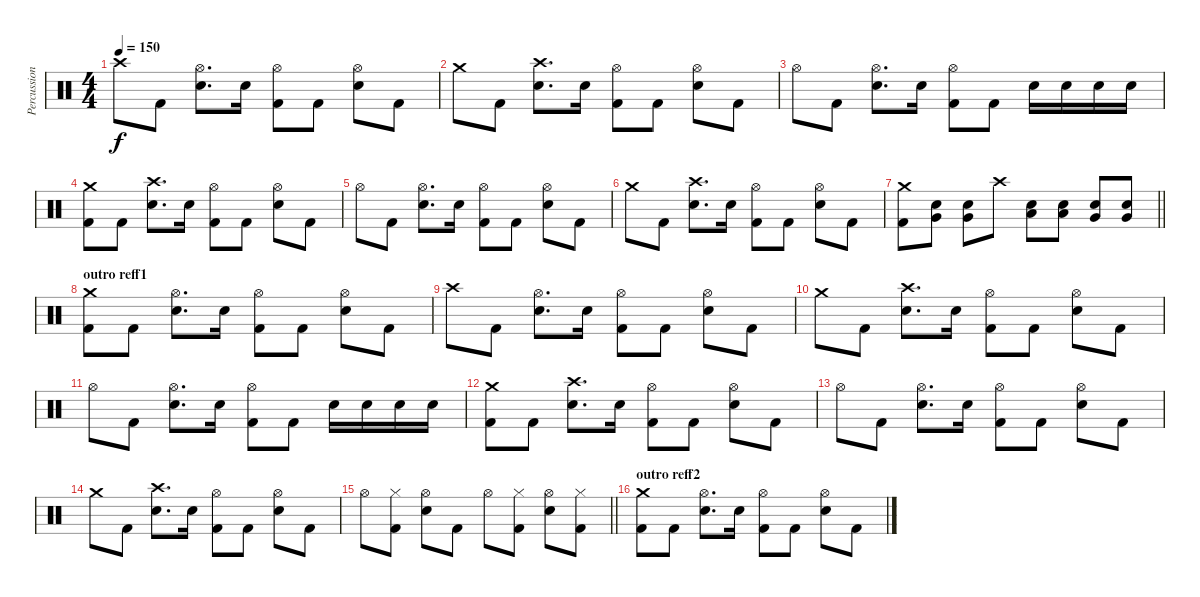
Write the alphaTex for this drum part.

\track ("Percussion" "Percussion") {instrument percussion}
\staff {score}
\articulation defaults
\ts (4 4)
\tempo 150
\clef neutral
\ks c "Crash high (hit)".8{dy f} "Kick (hit) 2".8
("Hi-Hat (open)" "Electric Snare (hit)").8{d} "Electric Snare (hit)".16 ("Hi-Hat (open)" "Kick (hit) 2").8 "Kick (hit) 2".8 ("Hi-Hat (open)" "Electric Snare (hit)").8 "Kick (hit) 2".8 |
"Crash medium (hit)".8 "Kick (hit) 2".8 ("Crash high (hit)" "Electric Snare (hit)").8{d} "Electric Snare (hit)".16 ("Hi-Hat (open)" "Kick (hit) 2").8 "Kick (hit) 2".8 ("Hi-Hat (open)" "Electric Snare (hit)").8 "Kick (hit) 2".8 |
"Hi-Hat (open)".8 "Kick (hit) 2".8 ("Hi-Hat (open)" "Electric Snare (hit)").8{d} "Electric Snare (hit)".16 ("Hi-Hat (open)" "Kick (hit) 2").8 "Kick (hit) 2".8 "Electric Snare (hit)".16 "Electric Snare (hit)".16 "Electric Snare (hit)".16 "Electric Snare (hit)".16 |
("Crash medium (hit)" "Kick (hit) 2").8 "Kick (hit) 2".8 ("Crash high (hit)" "Electric Snare (hit)").8{d} "Electric Snare (hit)".16 ("Hi-Hat (open)" "Kick (hit) 2").8 "Kick (hit) 2".8 ("Hi-Hat (open)" "Electric Snare (hit)").8 "Kick (hit) 2".8 |
"Hi-Hat (open)".8 "Kick (hit) 2".8 ("Hi-Hat (open)" "Electric Snare (hit)").8{d} "Electric Snare (hit)".16 ("Hi-Hat (open)" "Kick (hit) 2").8 "Kick (hit) 2".8 ("Hi-Hat (open)" "Electric Snare (hit)").8 "Kick (hit) 2".8 |
"Crash medium (hit)".8 "Kick (hit) 2".8 ("Crash high (hit)" "Electric Snare (hit)").8{d} "Electric Snare (hit)".16 ("Hi-Hat (open)" "Kick (hit) 2").8 "Kick (hit) 2".8 ("Hi-Hat (open)" "Electric Snare (hit)").8 "Kick (hit) 2".8 |
\barLineRight lightlight
("Crash medium (hit)" "Kick (hit) 2").8 ("Very Low Tom (hit)" "Electric Snare (hit)").8 ("Very Low Tom (hit)" "Electric Snare (hit)").8 "Crash high (hit)".8 ("Low Tom (hit)" "Electric Snare (hit)").8 ("Low Tom (hit)" "Electric Snare (hit)").8 ("Very Low Tom (hit)" "Electric Snare (hit)").8 ("Very Low Tom (hit)" "Electric Snare (hit)").8 |
\section ("" "outro reff1")
("Crash medium (hit)" "Kick (hit) 2").8 "Kick (hit) 2".8 ("Hi-Hat (open)" "Electric Snare (hit)").8{d} "Electric Snare (hit)".16 ("Hi-Hat (open)" "Kick (hit) 2").8 "Kick (hit) 2".8 ("Hi-Hat (open)" "Electric Snare (hit)").8 "Kick (hit) 2".8 |
"Crash high (hit)".8 "Kick (hit) 2".8 ("Hi-Hat (open)" "Electric Snare (hit)").8{d} "Electric Snare (hit)".16 ("Hi-Hat (open)" "Kick (hit) 2").8 "Kick (hit) 2".8 ("Hi-Hat (open)" "Electric Snare (hit)").8 "Kick (hit) 2".8 |
"Crash medium (hit)".8 "Kick (hit) 2".8 ("Crash high (hit)" "Electric Snare (hit)").8{d} "Electric Snare (hit)".16 ("Hi-Hat (open)" "Kick (hit) 2").8 "Kick (hit) 2".8 ("Hi-Hat (open)" "Electric Snare (hit)").8 "Kick (hit) 2".8 |
"Hi-Hat (open)".8 "Kick (hit) 2".8 ("Hi-Hat (open)" "Electric Snare (hit)").8{d} "Electric Snare (hit)".16 ("Hi-Hat (open)" "Kick (hit) 2").8 "Kick (hit) 2".8 "Electric Snare (hit)".16 "Electric Snare (hit)".16 "Electric Snare (hit)".16 "Electric Snare (hit)".16 |
("Crash medium (hit)" "Kick (hit) 2").8 "Kick (hit) 2".8 ("Crash high (hit)" "Electric Snare (hit)").8{d} "Electric Snare (hit)".16 ("Hi-Hat (open)" "Kick (hit) 2").8 "Kick (hit) 2".8 ("Hi-Hat (open)" "Electric Snare (hit)").8 "Kick (hit) 2".8 |
"Hi-Hat (open)".8 "Kick (hit) 2".8 ("Hi-Hat (open)" "Electric Snare (hit)").8{d} "Electric Snare (hit)".16 ("Hi-Hat (open)" "Kick (hit) 2").8 "Kick (hit) 2".8 ("Hi-Hat (open)" "Electric Snare (hit)").8 "Kick (hit) 2".8 |
"Crash medium (hit)".8 "Kick (hit) 2".8 ("Crash high (hit)" "Electric Snare (hit)").8{d} "Electric Snare (hit)".16 ("Hi-Hat (open)" "Kick (hit) 2").8 "Kick (hit) 2".8 ("Hi-Hat (open)" "Electric Snare (hit)").8 "Kick (hit) 2".8 |
\barLineRight lightlight "Hi-Hat (open)".8
("Hi-Hat (closed)" "Kick (hit) 2").8 ("Hi-Hat (open)" "Electric Snare (hit)").8 "Kick (hit) 2".8 "Hi-Hat (open)".8 ("Hi-Hat (closed)" "Kick (hit) 2").8 ("Hi-Hat (open)" "Electric Snare (hit)").8 ("Hi-Hat (closed)" "Kick (hit) 2").8 |
\section ("" "outro reff2")
("Crash medium (hit)" "Kick (hit) 2").8 "Kick (hit) 2".8 ("Hi-Hat (open)" "Electric Snare (hit)").8{d} "Electric Snare (hit)".16 ("Hi-Hat (open)" "Kick (hit) 2").8 "Kick (hit) 2".8 ("Hi-Hat (open)" "Electric Snare (hit)").8 "Kick (hit) 2".8
